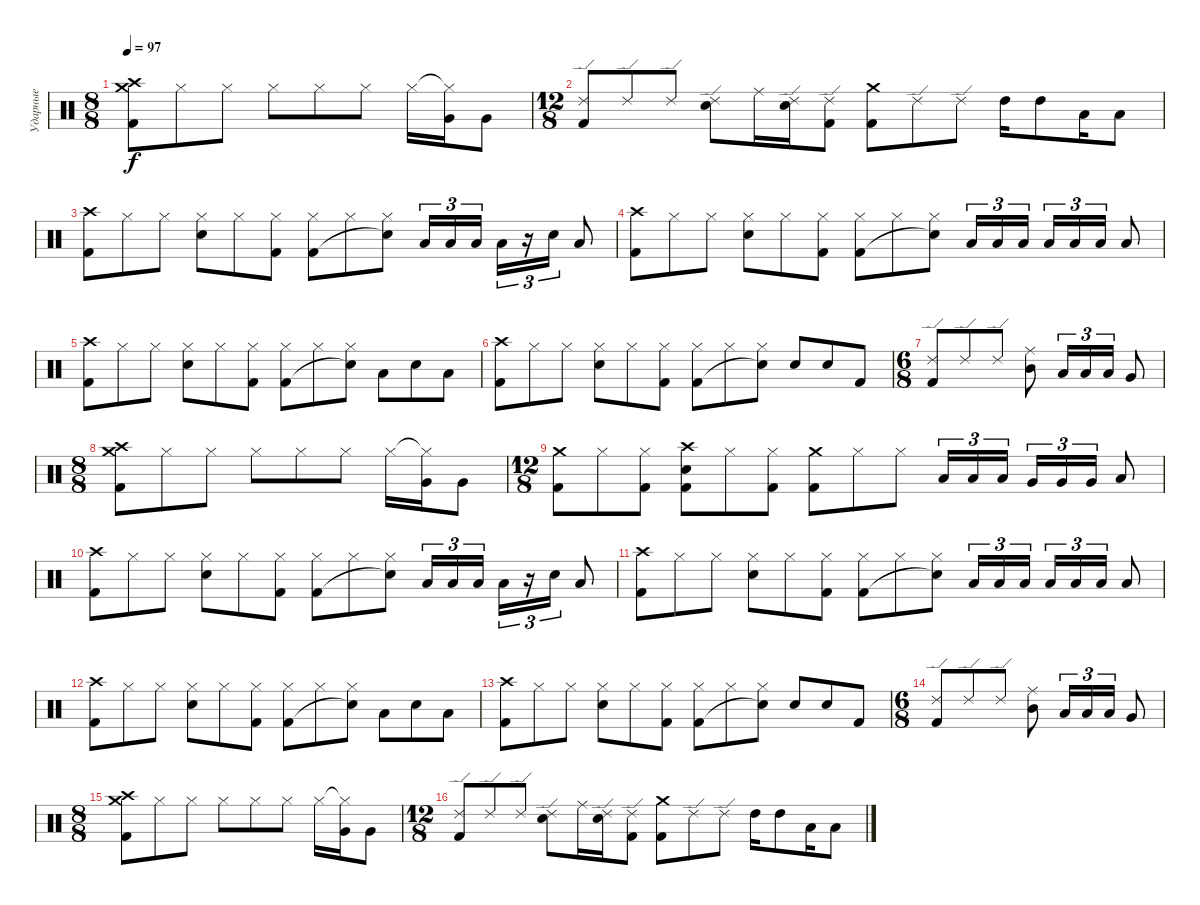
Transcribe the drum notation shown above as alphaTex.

\track ("Ударные" "Ударные") {instrument percussion}
\staff {score}
\articulation defaults
\ts (8 8)
\tempo 97
\clef neutral
\ks c
("Crash high (hit)" "Crash medium (hit)" "Kick (hit) 2").8{dy f} "Hi-Hat (closed)".8 "Hi-Hat (closed)".8 "Hi-Hat (closed)".8 "Hi-Hat (closed)".8 "Hi-Hat (closed)".8 "Hi-Hat (closed)".16 ("Hi-Hat (closed)"{t} "Very Low Tom (hit)").16 "Very Low Tom (hit)".8 |
\ts (12 8)
("Ride (edge) 2" "Kick (hit) 2").8{volume 7} "Ride (edge) 2".8 "Ride (edge) 2".8 ("Ride (edge) 2" "Snare (hit) 2").8 "Ride (middle)".16 ("Ride (edge) 2" "Snare (hit) 2").16 ("Ride (edge) 2" "Kick (hit) 2").8 ("Crash medium (hit)" "Kick (hit) 2").8 "Ride (edge) 2".8 "Ride (edge) 2".8 "High Tom (hit)".16 "High Tom (hit)".8 "Low Tom (hit)".16 "Low Tom (hit)".8 |
("Crash high (hit)" "Kick (hit) 2").8 "Hi-Hat (closed)".8 "Hi-Hat (closed)".8 ("Hi-Hat (closed)" "Snare (hit) 2").8 "Hi-Hat (closed)".8 ("Hi-Hat (closed)" "Kick (hit) 2").8 ("Hi-Hat (closed)" "Kick (hit) 2").8 "Hi-Hat (closed)".8 ("Hi-Hat (closed)" "Snare (hit)"{t}).8 "Low Tom (hit)".16{tu (3 2)} "Low Tom (hit)".16{tu (3 2)} "Low Tom (hit)".16{tu (3 2)} "Low Tom (hit)".16{tu (3 2)} r.16{tu (3 2)} "Snare (hit) 2".16{tu (3 2)} "Low Tom (hit)".8 |
("Crash high (hit)" "Kick (hit) 2").8{volume 6} "Hi-Hat (closed)".8 "Hi-Hat (closed)".8 ("Hi-Hat (closed)" "Snare (hit) 2").8 "Hi-Hat (closed)".8 ("Hi-Hat (closed)" "Kick (hit) 2").8 ("Hi-Hat (closed)" "Kick (hit) 2").8 "Hi-Hat (closed)".8 ("Hi-Hat (closed)" "Snare (hit)"{t}).8 "Low Tom (hit)".16{tu (3 2)} "Low Tom (hit)".16{tu (3 2)} "Low Tom (hit)".16{tu (3 2)} "Low Tom (hit)".16{tu (3 2)} "Low Tom (hit)".16{tu (3 2)} "Low Tom (hit)".16{tu (3 2)} "Low Tom (hit)".8 |
("Crash high (hit)" "Kick (hit) 2").8 "Hi-Hat (closed)".8 "Hi-Hat (closed)".8 ("Hi-Hat (closed)" "Snare (hit) 2").8 "Hi-Hat (closed)".8 ("Hi-Hat (closed)" "Kick (hit) 2").8 ("Hi-Hat (closed)" "Kick (hit) 2").8 "Hi-Hat (closed)".8 ("Hi-Hat (closed)" "Snare (hit)"{t}).8 "Low Tom (hit)".8 "Snare (hit) 2".8 "Low Tom (hit)".8 |
("Crash high (hit)" "Kick (hit) 2").8{volume 5} "Hi-Hat (closed)".8 "Hi-Hat (closed)".8 ("Hi-Hat (closed)" "Snare (hit) 2").8 "Hi-Hat (closed)".8 ("Hi-Hat (closed)" "Kick (hit) 2").8 ("Hi-Hat (closed)" "Kick (hit) 2").8 "Hi-Hat (closed)".8 ("Hi-Hat (closed)" "Snare (hit)"{t}).8 "Snare (hit) 2".8 "Snare (hit) 2".8 "Kick (hit) 2".8 |
\ts (6 8)
("Ride (edge) 2" "Kick (hit) 2").8 "Ride (edge) 2".8 "Ride (edge) 2".8 ("Ride (middle)" "Mid Tom (hit)").8 "Low Tom (hit)".16{tu (3 2)} "Low Tom (hit)".16{tu (3 2)} "Low Tom (hit)".16{tu (3 2)} "Very Low Tom (hit)".8 |
\ts (8 8)
("Crash high (hit)" "Crash medium (hit)" "Kick (hit) 2").8{volume 4} "Hi-Hat (closed)".8 "Hi-Hat (closed)".8 "Hi-Hat (closed)".8 "Hi-Hat (closed)".8 "Hi-Hat (closed)".8 "Hi-Hat (closed)".16 ("Hi-Hat (closed)"{t} "Very Low Tom (hit)").16 "Very Low Tom (hit)".8 |
\ts (12 8)
("Crash medium (hit)" "Kick (hit) 2").8 "Hi-Hat (closed)".8 ("Hi-Hat (closed)" "Kick (hit) 2").8 ("Crash high (hit)" "Snare (hit) 2" "Kick (hit) 2").8 "Hi-Hat (closed)".8 ("Hi-Hat (closed)" "Kick (hit) 2").8 ("Crash medium (hit)" "Kick (hit) 2").8 "Hi-Hat (closed)".8 "Hi-Hat (closed)".8 "Low Tom (hit)".16{tu (3 2)} "Low Tom (hit)".16{tu (3 2)} "Low Tom (hit)".16{tu (3 2)} "Very Low Tom (hit)".16{tu (3 2)} "Very Low Tom (hit)".16{tu (3 2)} "Very Low Tom (hit)".16{tu (3 2)} "Low Floor Tom (hit)".8 |
("Crash high (hit)" "Kick (hit) 2").8{volume 3} "Hi-Hat (closed)".8 "Hi-Hat (closed)".8 ("Hi-Hat (closed)" "Snare (hit) 2").8 "Hi-Hat (closed)".8 ("Hi-Hat (closed)" "Kick (hit) 2").8 ("Hi-Hat (closed)" "Kick (hit) 2").8 "Hi-Hat (closed)".8 ("Hi-Hat (closed)" "Snare (hit)"{t}).8 "Low Tom (hit)".16{tu (3 2)} "Low Tom (hit)".16{tu (3 2)} "Low Tom (hit)".16{tu (3 2)} "Low Tom (hit)".16{tu (3 2)} r.16{tu (3 2)} "Snare (hit) 2".16{tu (3 2)} "Low Tom (hit)".8 |
("Crash high (hit)" "Kick (hit) 2").8 "Hi-Hat (closed)".8 "Hi-Hat (closed)".8 ("Hi-Hat (closed)" "Snare (hit) 2").8 "Hi-Hat (closed)".8 ("Hi-Hat (closed)" "Kick (hit) 2").8 ("Hi-Hat (closed)" "Kick (hit) 2").8 "Hi-Hat (closed)".8 ("Hi-Hat (closed)" "Snare (hit)"{t}).8 "Low Tom (hit)".16{tu (3 2)} "Low Tom (hit)".16{tu (3 2)} "Low Tom (hit)".16{tu (3 2)} "Low Tom (hit)".16{tu (3 2)} "Low Tom (hit)".16{tu (3 2)} "Low Tom (hit)".16{tu (3 2)} "Low Tom (hit)".8 |
("Crash high (hit)" "Kick (hit) 2").8{volume 2} "Hi-Hat (closed)".8 "Hi-Hat (closed)".8 ("Hi-Hat (closed)" "Snare (hit) 2").8 "Hi-Hat (closed)".8 ("Hi-Hat (closed)" "Kick (hit) 2").8 ("Hi-Hat (closed)" "Kick (hit) 2").8 "Hi-Hat (closed)".8 ("Hi-Hat (closed)" "Snare (hit)"{t}).8 "Low Tom (hit)".8 "Snare (hit) 2".8 "Low Tom (hit)".8 |
("Crash high (hit)" "Kick (hit) 2").8 "Hi-Hat (closed)".8 "Hi-Hat (closed)".8 ("Hi-Hat (closed)" "Snare (hit) 2").8 "Hi-Hat (closed)".8 ("Hi-Hat (closed)" "Kick (hit) 2").8 ("Hi-Hat (closed)" "Kick (hit) 2").8 "Hi-Hat (closed)".8 ("Hi-Hat (closed)" "Snare (hit)"{t}).8 "Snare (hit) 2".8 "Snare (hit) 2".8 "Kick (hit) 2".8 |
\ts (6 8)
("Ride (edge) 2" "Kick (hit) 2").8{volume 2} "Ride (edge) 2".8 "Ride (edge) 2".8 ("Ride (middle)" "Mid Tom (hit)").8 "Low Tom (hit)".16{tu (3 2)} "Low Tom (hit)".16{tu (3 2)} "Low Tom (hit)".16{tu (3 2)} "Very Low Tom (hit)".8 |
\ts (8 8)
("Crash high (hit)" "Crash medium (hit)" "Kick (hit) 2").8 "Hi-Hat (closed)".8 "Hi-Hat (closed)".8 "Hi-Hat (closed)".8 "Hi-Hat (closed)".8 "Hi-Hat (closed)".8 "Hi-Hat (closed)".16 ("Hi-Hat (closed)"{t} "Very Low Tom (hit)").16 "Very Low Tom (hit)".8 |
\ts (12 8)
("Ride (edge) 2" "Kick (hit) 2").8{volume 1} "Ride (edge) 2".8 "Ride (edge) 2".8 ("Ride (edge) 2" "Snare (hit) 2").8 "Ride (middle)".16 ("Ride (edge) 2" "Snare (hit) 2").16 ("Ride (edge) 2" "Kick (hit) 2").8 ("Crash medium (hit)" "Kick (hit) 2").8 "Ride (edge) 2".8 "Ride (edge) 2".8 "High Tom (hit)".16 "High Tom (hit)".8 "Low Tom (hit)".16 "Low Tom (hit)".8
